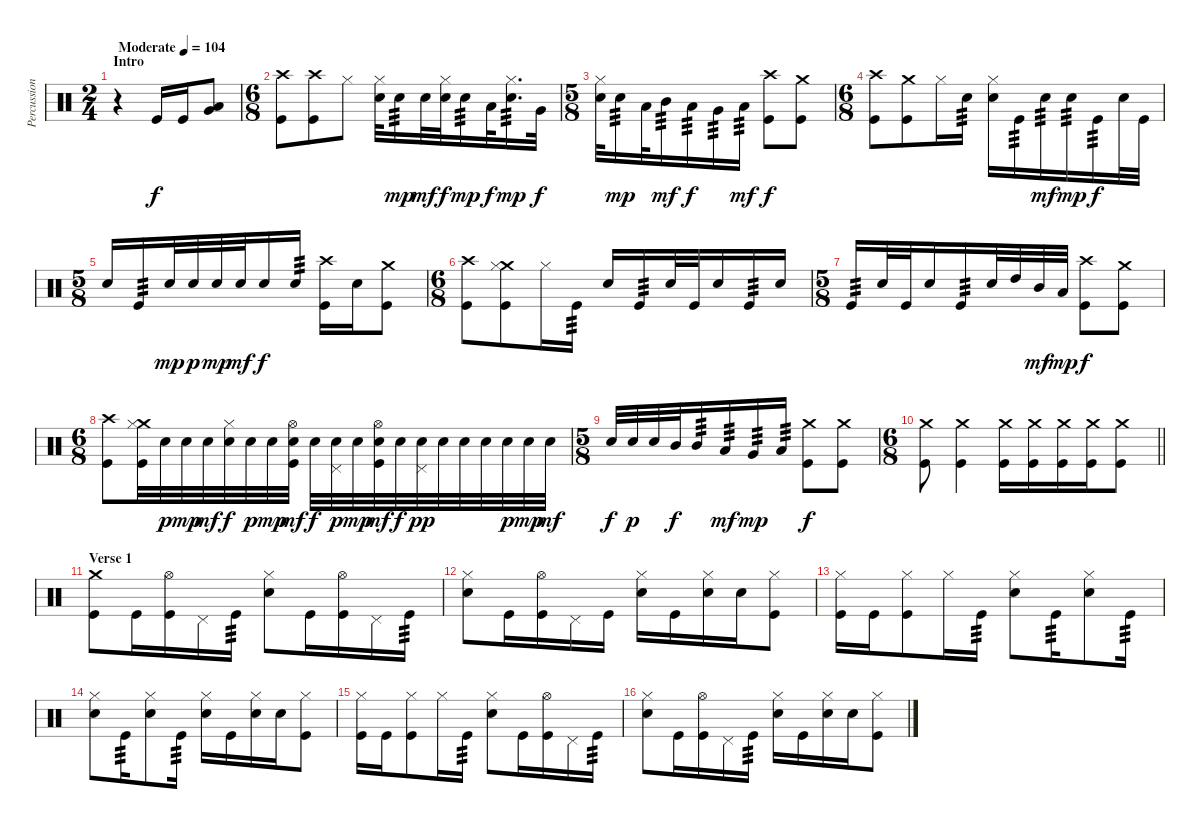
\track ("Percussion" "Percussion") {instrument percussion}
\staff {score}
\articulation defaults
\ts (2 4)
\section ("" "Intro")
\tempo (104 "Moderate")
\clef neutral
\ks c
r.4{dy f} "Kick (hit)".16 "Kick (hit)".16 ("Very Low Tom (hit)" "Low Floor Tom (hit)").8 |
\ts (6 8)
("Crash high (hit)" "Kick (hit)").8 ("Crash high (hit)" "Kick (hit)").8 "Hi-Hat (closed)".8 ("Hi-Hat (closed)" "Snare (hit) 2").32 "Snare (hit) 2".16{tp 3 dy mp} "Snare (hit) 2".32{dy mf} ("Hi-Hat (closed)" "Snare (hit) 2").32{dy f} "Snare (hit) 2".16{tp 3 dy mp} "Low Floor Tom (hit)".32{dy f} ("Hi-Hat (closed)" "Snare (hit) 2").16{d tp 3 dy mp} "Very Low Tom (hit)".32{dy f} |
\ts (5 8)
("Hi-Hat (closed)" "Snare (hit) 2").32 "Snare (hit) 2".16{tp 3 dy mp} "Low Tom (hit)".32 "Mid Tom (hit)".16{tp 3 dy mf} "Low Tom (hit)".16{tp 3 dy f} "Very Low Tom (hit)".16{tp 3} "Low Floor Tom (hit)".16{tp 3 dy mf} ("Crash high (hit)" "Kick (hit)").8{dy f} ("Crash medium (hit)" "Kick (hit)").8 |
\ts (6 8)
("Crash high (hit)" "Kick (hit)").8 ("Crash medium (hit)" "Kick (hit)").8 "Hi-Hat (closed)".16 "Snare (hit) 2".16{tp 3} ("Hi-Hat (closed)" "Snare (hit) 2").16 "Kick (hit)".16{tp 3} "Snare (hit) 2".16{tp 3 dy mf} "Snare (hit) 2".16{tp 3 dy mp} "Kick (hit)".16{tp 3 dy f} "Snare (hit) 2".32 "Kick (hit)".32 |
\ts (5 8)
"Snare (hit) 2".16 "Kick (hit)".16{tp 3} "Snare (hit) 2".32{dy mp} "Snare (hit) 2".32{dy p} "Snare (hit) 2".32{dy mp} "Snare (hit) 2".32{dy mf} "Snare (hit) 2".16{dy f} "Snare (hit) 2".16{tp 3} ("Crash high (hit)" "Kick (hit)").16 "Snare (hit) 2".16 ("Crash medium (hit)" "Kick (hit)").8 |
\ts (6 8)
("Crash high (hit)" "Kick (hit)").8 ("Crash medium (hit)" "Hi-Hat (closed)" "Kick (hit)").8 "Hi-Hat (closed)".16 "Kick (hit)".16{tp 3} "Snare (hit) 2".16 "Kick (hit)".16{tp 3} "Snare (hit) 2".32 "Kick (hit)".32 "Snare (hit) 2".16 "Kick (hit)".16{tp 3} "Snare (hit) 2".16 |
\ts (5 8)
"Kick (hit)".16{tp 3} "Snare (hit) 2".32 "Kick (hit)".32 "Snare (hit) 2".16 "Kick (hit)".16{tp 3} "Snare (hit) 2".32 "High Tom (hit)".32 "Mid Tom (hit)".32{dy mf} "Low Tom (hit)".32{dy mp} ("Crash high (hit)" "Kick (hit)").8{dy f} ("Crash medium (hit)" "Kick (hit)").8 |
\ts (6 8)
("Crash high (hit)" "Kick (hit)").8 ("Crash medium (hit)" "Hi-Hat (closed)" "Kick (hit)").32 "Snare (hit) 2".32{dy p} "Snare (hit) 2".32{dy mp} "Snare (hit) 2".32{dy mf} ("Hi-Hat (closed)" "Snare (hit) 2").32{dy f} "Snare (hit) 2".32{dy p} "Snare (hit) 2".32{dy mp} ("Hi-Hat (open)" "Snare (hit) 2" "Kick (hit)").32{dy mf} "Snare (hit) 2".32{dy f} ("Pedal Hi-Hat (hit)" "Snare (hit) 2").32{dy p} "Snare (hit) 2".32{dy mp} ("Hi-Hat (open)" "Snare (hit) 2" "Kick (hit)").32{dy mf} "Snare (hit) 2".32{dy f} ("Pedal Hi-Hat (hit)" "Snare (hit) 2").32{dy pp} "Snare (hit) 2".32 "Snare (hit) 2".32 "Snare (hit) 2".32 "Snare (hit) 2".32{dy p} "Snare (hit) 2".32{dy mp} "Snare (hit) 2".32{dy mf} |
\ts (5 8)
"Snare (hit) 2".32{dy f} "Snare (hit) 2".32{dy p} "Snare (hit) 2".32 "Mid Tom (hit)".32{dy f} "Mid Tom (hit)".16{tp 3} "Low Tom (hit)".16{tp 3 dy mf} "Very Low Tom (hit)".16{tp 3 dy mp} "Low Floor Tom (hit)".16{tp 3} ("Crash medium (hit)" "Kick (hit)").8{dy f} ("Crash medium (hit)" "Kick (hit)").8 |
\ts (6 8)
\barLineRight lightlight
("Crash medium (hit)" "Kick (hit)").8 ("Crash medium (hit)" "Kick (hit)").4 ("Crash medium (hit)" "Kick (hit)").16 ("Crash medium (hit)" "Kick (hit)").16 ("Crash medium (hit)" "Kick (hit)").16 ("Crash medium (hit)" "Kick (hit)").16 ("Crash medium (hit)" "Kick (hit)").8 |
\section ("" "Verse 1")
("Crash medium (hit)" "Kick (hit)").8 "Kick (hit)".16 ("Hi-Hat (open)" "Kick (hit)").16 "Pedal Hi-Hat (hit)".16 "Kick (hit)".16{tp 3} ("Hi-Hat (closed)" "Snare (hit) 2").8 "Kick (hit)".16 ("Hi-Hat (open)" "Kick (hit)").16 "Pedal Hi-Hat (hit)".16 "Kick (hit)".16{tp 3} |
("Hi-Hat (closed)" "Snare (hit) 2").8 "Kick (hit)".16 ("Hi-Hat (open)" "Kick (hit)").16 "Pedal Hi-Hat (hit)".16 "Kick (hit)".16 ("Hi-Hat (closed)" "Snare (hit) 2").16 "Kick (hit)".16 ("Hi-Hat (closed)" "Snare (hit) 2").16 "Snare (hit) 2".16 ("Hi-Hat (closed)" "Kick (hit)").8 |
("Hi-Hat (closed)" "Kick (hit)").16 "Kick (hit)".16 ("Hi-Hat (closed)" "Kick (hit)").8 "Hi-Hat (closed)".16 "Kick (hit)".16{tp 3} ("Hi-Hat (closed)" "Snare (hit) 2").8 "Kick (hit)".16{tp 3} ("Hi-Hat (closed)" "Snare (hit) 2").8 "Kick (hit)".16{tp 3} |
("Hi-Hat (closed)" "Snare (hit) 2").8 "Kick (hit)".16{tp 3} ("Hi-Hat (closed)" "Snare (hit) 2").8 "Kick (hit)".16{tp 3} ("Hi-Hat (closed)" "Snare (hit) 2").16 "Kick (hit)".16 ("Hi-Hat (closed)" "Snare (hit) 2").16 "Snare (hit) 2".16 ("Hi-Hat (closed)" "Kick (hit)").8 |
("Hi-Hat (closed)" "Kick (hit)").16 "Kick (hit)".16 ("Hi-Hat (closed)" "Kick (hit)").8 "Hi-Hat (closed)".16 "Kick (hit)".16{tp 3} ("Hi-Hat (closed)" "Snare (hit) 2").8 "Kick (hit)".16 ("Hi-Hat (open)" "Kick (hit)").16 "Pedal Hi-Hat (hit)".16 "Kick (hit)".16{tp 3} |
("Hi-Hat (closed)" "Snare (hit) 2").8 "Kick (hit)".16 ("Hi-Hat (open)" "Kick (hit)").16 "Pedal Hi-Hat (hit)".16 "Kick (hit)".16{tp 3} ("Hi-Hat (closed)" "Snare (hit) 2").16 "Kick (hit)".16 ("Hi-Hat (closed)" "Snare (hit) 2").16 "Snare (hit) 2".16 ("Hi-Hat (closed)" "Kick (hit)").8
